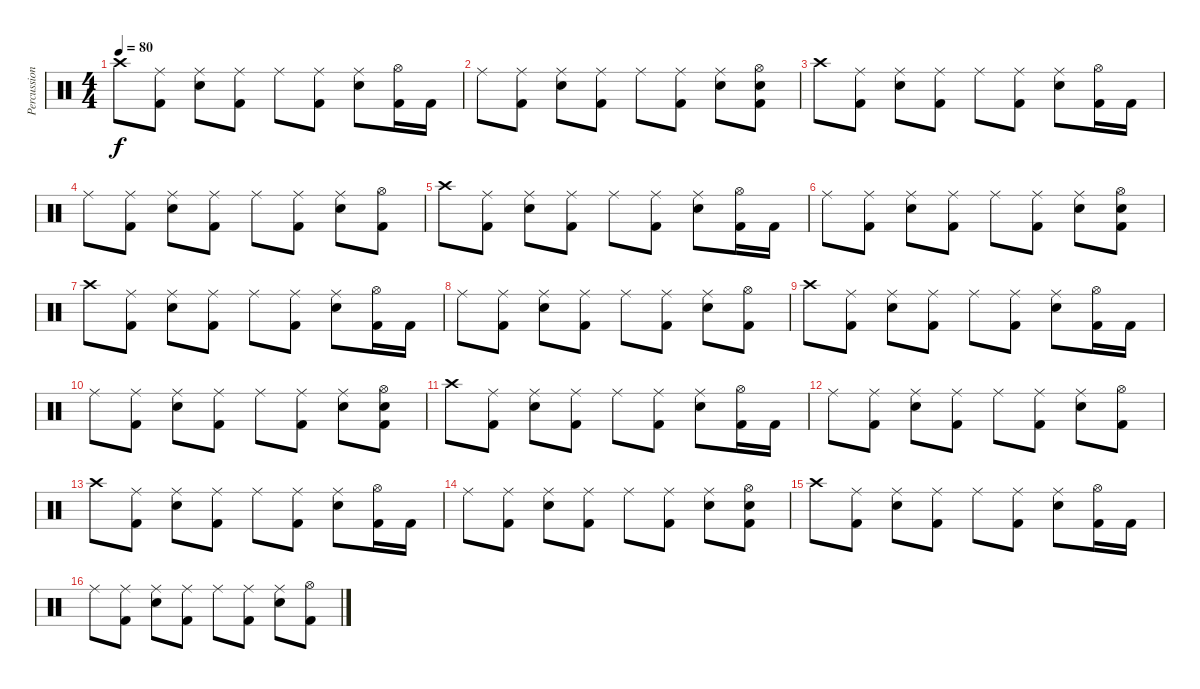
\track ("Percussion" "Percussion") {instrument percussion}
\staff {score}
\articulation defaults
\ts (4 4)
\tempo 80
\clef neutral
\ks c "Crash high (hit)".8{dy f}
("Ride (middle)" "Kick (hit) 2").8 ("Ride (middle)" "Electric Snare (hit)").8 ("Ride (middle)" "Kick (hit) 2").8 "Ride (middle)".8 ("Ride (middle)" "Kick (hit) 2").8 ("Ride (middle)" "Electric Snare (hit)").8 ("Hi-Hat (open)" "Kick (hit) 2").16 "Kick (hit) 2".16 |
"Ride (middle)".8 ("Ride (middle)" "Kick (hit) 2").8 ("Ride (middle)" "Electric Snare (hit)").8 ("Ride (middle)" "Kick (hit) 2").8 "Ride (middle)".8 ("Ride (middle)" "Kick (hit) 2").8 ("Ride (middle)" "Electric Snare (hit)").8 ("Hi-Hat (open)" "Electric Snare (hit)" "Kick (hit) 2").8 |
"Crash high (hit)".8 ("Ride (middle)" "Kick (hit) 2").8 ("Ride (middle)" "Electric Snare (hit)").8 ("Ride (middle)" "Kick (hit) 2").8 "Ride (middle)".8 ("Ride (middle)" "Kick (hit) 2").8 ("Ride (middle)" "Electric Snare (hit)").8 ("Hi-Hat (open)" "Kick (hit) 2").16 "Kick (hit) 2".16 |
"Ride (middle)".8 ("Ride (middle)" "Kick (hit) 2").8 ("Ride (middle)" "Electric Snare (hit)").8 ("Ride (middle)" "Kick (hit) 2").8 "Ride (middle)".8 ("Ride (middle)" "Kick (hit) 2").8 ("Ride (middle)" "Electric Snare (hit)").8 ("Hi-Hat (open)" "Kick (hit) 2").8 |
"Crash high (hit)".8 ("Ride (middle)" "Kick (hit) 2").8 ("Ride (middle)" "Electric Snare (hit)").8 ("Ride (middle)" "Kick (hit) 2").8 "Ride (middle)".8 ("Ride (middle)" "Kick (hit) 2").8 ("Ride (middle)" "Electric Snare (hit)").8 ("Hi-Hat (open)" "Kick (hit) 2").16 "Kick (hit) 2".16 |
"Ride (middle)".8 ("Ride (middle)" "Kick (hit) 2").8 ("Ride (middle)" "Electric Snare (hit)").8 ("Ride (middle)" "Kick (hit) 2").8 "Ride (middle)".8 ("Ride (middle)" "Kick (hit) 2").8 ("Ride (middle)" "Electric Snare (hit)").8 ("Hi-Hat (open)" "Electric Snare (hit)" "Kick (hit) 2").8 |
"Crash high (hit)".8 ("Ride (middle)" "Kick (hit) 2").8 ("Ride (middle)" "Electric Snare (hit)").8 ("Ride (middle)" "Kick (hit) 2").8 "Ride (middle)".8 ("Ride (middle)" "Kick (hit) 2").8 ("Ride (middle)" "Electric Snare (hit)").8 ("Hi-Hat (open)" "Kick (hit) 2").16 "Kick (hit) 2".16 |
"Ride (middle)".8 ("Ride (middle)" "Kick (hit) 2").8 ("Ride (middle)" "Electric Snare (hit)").8 ("Ride (middle)" "Kick (hit) 2").8 "Ride (middle)".8 ("Ride (middle)" "Kick (hit) 2").8 ("Ride (middle)" "Electric Snare (hit)").8 ("Hi-Hat (open)" "Kick (hit) 2").8 |
"Crash high (hit)".8 ("Ride (middle)" "Kick (hit) 2").8 ("Ride (middle)" "Electric Snare (hit)").8 ("Ride (middle)" "Kick (hit) 2").8 "Ride (middle)".8 ("Ride (middle)" "Kick (hit) 2").8 ("Ride (middle)" "Electric Snare (hit)").8 ("Hi-Hat (open)" "Kick (hit) 2").16 "Kick (hit) 2".16 |
"Ride (middle)".8 ("Ride (middle)" "Kick (hit) 2").8 ("Ride (middle)" "Electric Snare (hit)").8 ("Ride (middle)" "Kick (hit) 2").8 "Ride (middle)".8 ("Ride (middle)" "Kick (hit) 2").8 ("Ride (middle)" "Electric Snare (hit)").8 ("Hi-Hat (open)" "Electric Snare (hit)" "Kick (hit) 2").8 |
"Crash high (hit)".8 ("Ride (middle)" "Kick (hit) 2").8 ("Ride (middle)" "Electric Snare (hit)").8 ("Ride (middle)" "Kick (hit) 2").8 "Ride (middle)".8 ("Ride (middle)" "Kick (hit) 2").8 ("Ride (middle)" "Electric Snare (hit)").8 ("Hi-Hat (open)" "Kick (hit) 2").16 "Kick (hit) 2".16 |
"Ride (middle)".8 ("Ride (middle)" "Kick (hit) 2").8 ("Ride (middle)" "Electric Snare (hit)").8 ("Ride (middle)" "Kick (hit) 2").8 "Ride (middle)".8 ("Ride (middle)" "Kick (hit) 2").8 ("Ride (middle)" "Electric Snare (hit)").8 ("Hi-Hat (open)" "Kick (hit) 2").8 |
"Crash high (hit)".8 ("Ride (middle)" "Kick (hit) 2").8 ("Ride (middle)" "Electric Snare (hit)").8 ("Ride (middle)" "Kick (hit) 2").8 "Ride (middle)".8 ("Ride (middle)" "Kick (hit) 2").8 ("Ride (middle)" "Electric Snare (hit)").8 ("Hi-Hat (open)" "Kick (hit) 2").16 "Kick (hit) 2".16 |
"Ride (middle)".8 ("Ride (middle)" "Kick (hit) 2").8 ("Ride (middle)" "Electric Snare (hit)").8 ("Ride (middle)" "Kick (hit) 2").8 "Ride (middle)".8 ("Ride (middle)" "Kick (hit) 2").8 ("Ride (middle)" "Electric Snare (hit)").8 ("Hi-Hat (open)" "Electric Snare (hit)" "Kick (hit) 2").8 |
"Crash high (hit)".8 ("Ride (middle)" "Kick (hit) 2").8 ("Ride (middle)" "Electric Snare (hit)").8 ("Ride (middle)" "Kick (hit) 2").8 "Ride (middle)".8 ("Ride (middle)" "Kick (hit) 2").8 ("Ride (middle)" "Electric Snare (hit)").8 ("Hi-Hat (open)" "Kick (hit) 2").16 "Kick (hit) 2".16 |
"Ride (middle)".8 ("Ride (middle)" "Kick (hit) 2").8 ("Ride (middle)" "Electric Snare (hit)").8 ("Ride (middle)" "Kick (hit) 2").8 "Ride (middle)".8 ("Ride (middle)" "Kick (hit) 2").8 ("Ride (middle)" "Electric Snare (hit)").8 ("Hi-Hat (open)" "Kick (hit) 2").8
